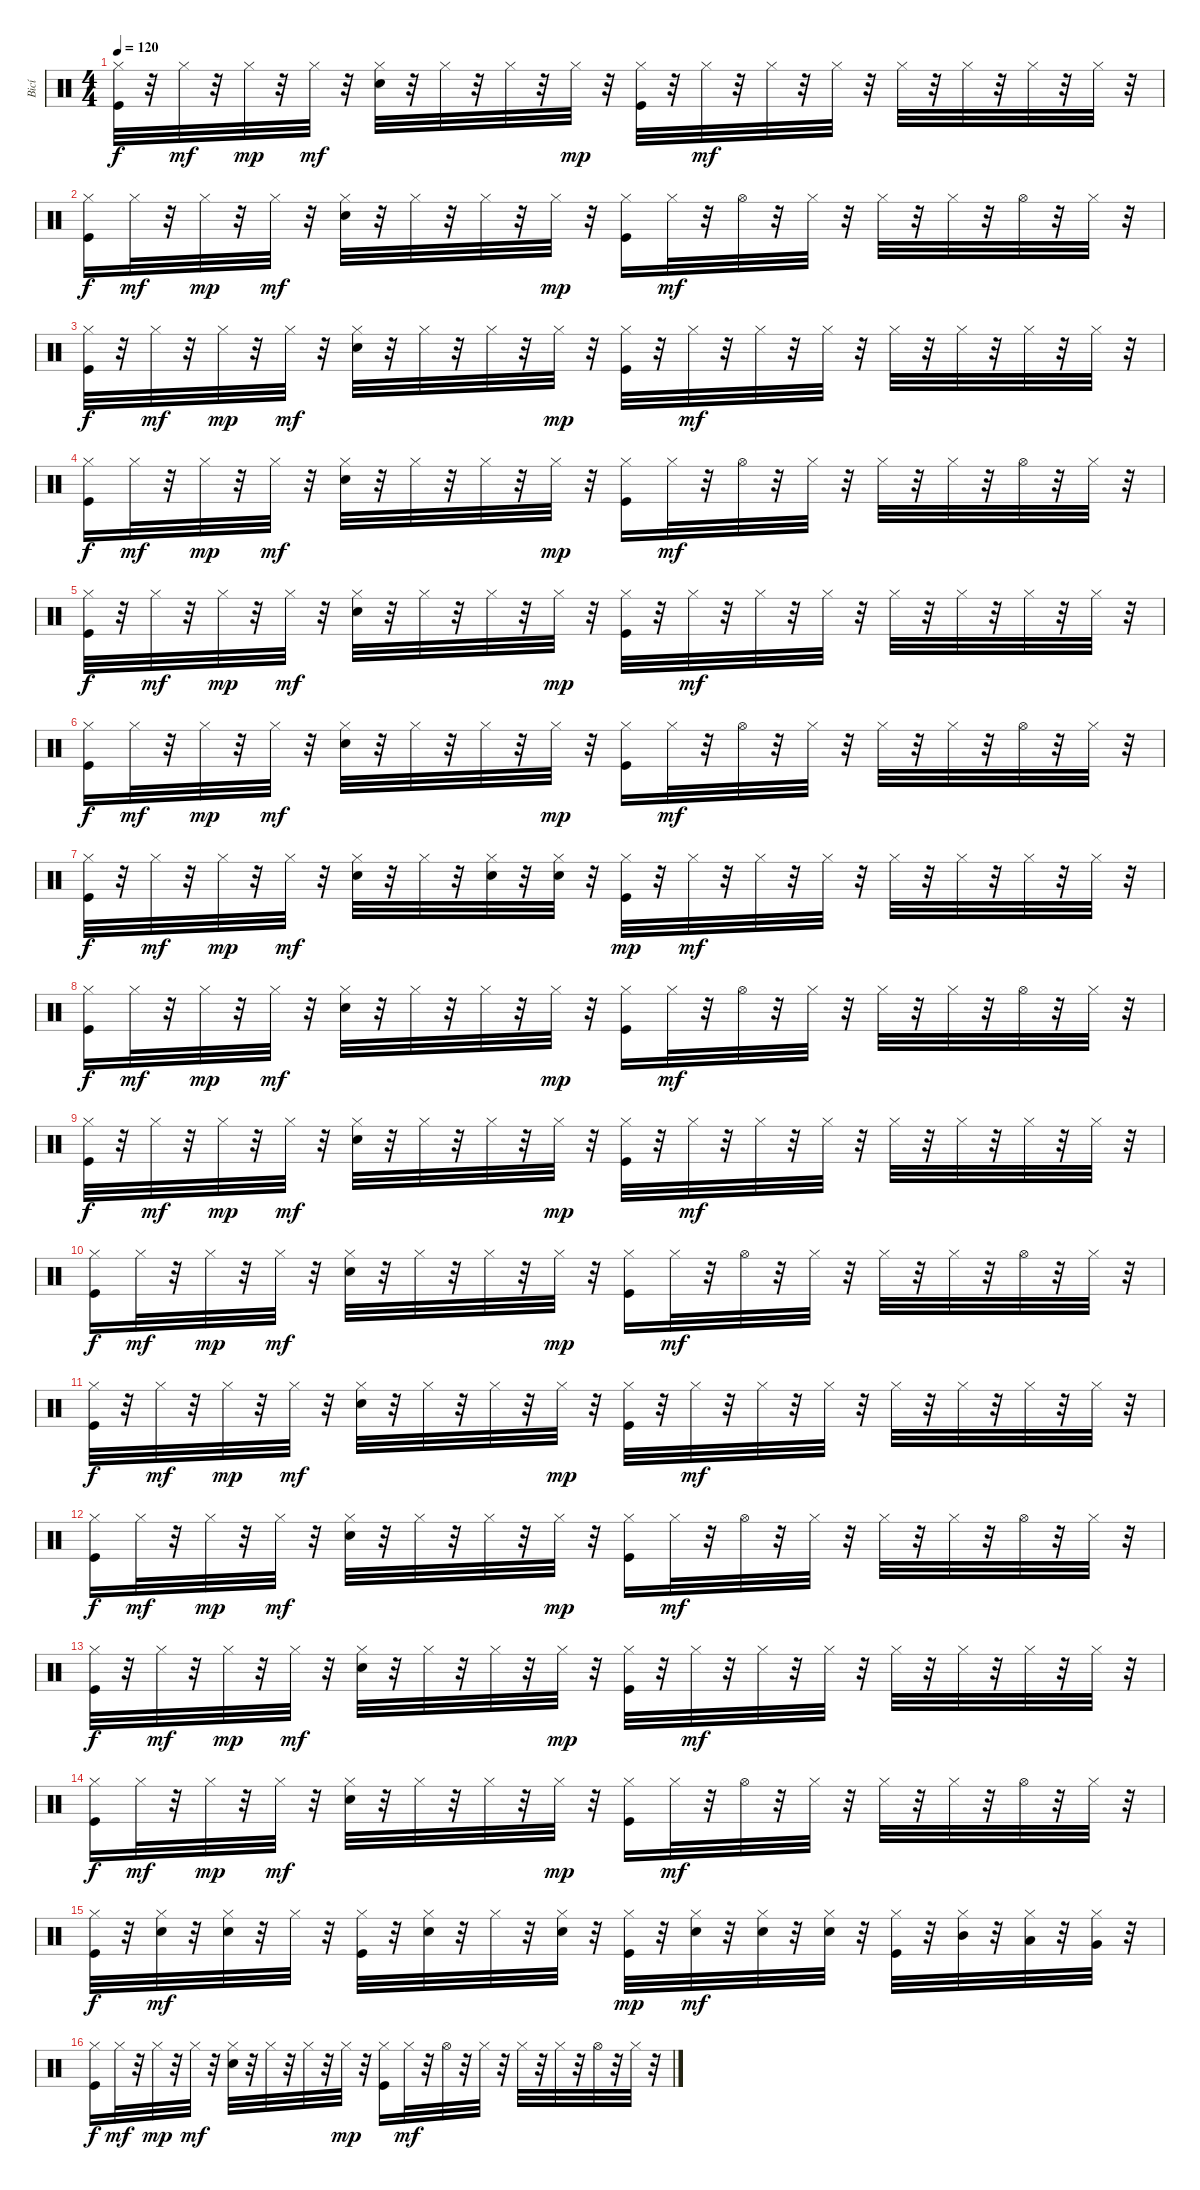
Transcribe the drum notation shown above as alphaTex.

\track ("Bicí" "Bicí") {instrument percussion}
\staff {score}
\articulation defaults
\ts (4 4)
\tempo 120
\clef neutral
\ks c
("Hi-Hat (closed)" "Kick (hit)").32{dy f} r.32 "Hi-Hat (closed)".32{dy mf} r.32 "Hi-Hat (closed)".32{dy mp} r.32 "Hi-Hat (closed)".32{dy mf} r.32 ("Hi-Hat (closed)" "Snare (hit) 2").32 r.32 "Hi-Hat (closed)".32 r.32 "Hi-Hat (closed)".32 r.32 "Hi-Hat (closed)".32{dy mp} r.32 ("Hi-Hat (closed)" "Kick (hit)").32 r.32 "Hi-Hat (closed)".32{dy mf} r.32 "Hi-Hat (closed)".32 r.32 "Hi-Hat (closed)".32 r.32 "Hi-Hat (closed)".32 r.32 "Hi-Hat (closed)".32 r.32 "Hi-Hat (closed)".32 r.32 "Hi-Hat (closed)".32 r.32 |
("Hi-Hat (closed)" "Kick (hit)").16{dy f} "Hi-Hat (closed)".32{dy mf} r.32 "Hi-Hat (closed)".32{dy mp} r.32 "Hi-Hat (closed)".32{dy mf} r.32 ("Hi-Hat (closed)" "Snare (hit) 2").32 r.32 "Hi-Hat (closed)".32 r.32 "Hi-Hat (closed)".32 r.32 "Hi-Hat (closed)".32{dy mp} r.32 ("Hi-Hat (closed)" "Kick (hit)").16 "Hi-Hat (closed)".32{dy mf} r.32 "Hi-Hat (open)".32 r.32 "Hi-Hat (closed)".32 r.32 "Hi-Hat (closed)".32 r.32 "Hi-Hat (closed)".32 r.32 "Hi-Hat (open)".32 r.32 "Hi-Hat (closed)".32 r.32 |
("Hi-Hat (closed)" "Kick (hit)").32{dy f} r.32 "Hi-Hat (closed)".32{dy mf} r.32 "Hi-Hat (closed)".32{dy mp} r.32 "Hi-Hat (closed)".32{dy mf} r.32 ("Hi-Hat (closed)" "Snare (hit) 2").32 r.32 "Hi-Hat (closed)".32 r.32 "Hi-Hat (closed)".32 r.32 "Hi-Hat (closed)".32{dy mp} r.32 ("Hi-Hat (closed)" "Kick (hit)").32 r.32 "Hi-Hat (closed)".32{dy mf} r.32 "Hi-Hat (closed)".32 r.32 "Hi-Hat (closed)".32 r.32 "Hi-Hat (closed)".32 r.32 "Hi-Hat (closed)".32 r.32 "Hi-Hat (closed)".32 r.32 "Hi-Hat (closed)".32 r.32 |
("Hi-Hat (closed)" "Kick (hit)").16{dy f} "Hi-Hat (closed)".32{dy mf} r.32 "Hi-Hat (closed)".32{dy mp} r.32 "Hi-Hat (closed)".32{dy mf} r.32 ("Hi-Hat (closed)" "Snare (hit) 2").32 r.32 "Hi-Hat (closed)".32 r.32 "Hi-Hat (closed)".32 r.32 "Hi-Hat (closed)".32{dy mp} r.32 ("Hi-Hat (closed)" "Kick (hit)").16 "Hi-Hat (closed)".32{dy mf} r.32 "Hi-Hat (open)".32 r.32 "Hi-Hat (closed)".32 r.32 "Hi-Hat (closed)".32 r.32 "Hi-Hat (closed)".32 r.32 "Hi-Hat (open)".32 r.32 "Hi-Hat (closed)".32 r.32 |
("Hi-Hat (closed)" "Kick (hit)").32{dy f} r.32 "Hi-Hat (closed)".32{dy mf} r.32 "Hi-Hat (closed)".32{dy mp} r.32 "Hi-Hat (closed)".32{dy mf} r.32 ("Hi-Hat (closed)" "Snare (hit) 2").32 r.32 "Hi-Hat (closed)".32 r.32 "Hi-Hat (closed)".32 r.32 "Hi-Hat (closed)".32{dy mp} r.32 ("Hi-Hat (closed)" "Kick (hit)").32 r.32 "Hi-Hat (closed)".32{dy mf} r.32 "Hi-Hat (closed)".32 r.32 "Hi-Hat (closed)".32 r.32 "Hi-Hat (closed)".32 r.32 "Hi-Hat (closed)".32 r.32 "Hi-Hat (closed)".32 r.32 "Hi-Hat (closed)".32 r.32 |
("Hi-Hat (closed)" "Kick (hit)").16{dy f} "Hi-Hat (closed)".32{dy mf} r.32 "Hi-Hat (closed)".32{dy mp} r.32 "Hi-Hat (closed)".32{dy mf} r.32 ("Hi-Hat (closed)" "Snare (hit) 2").32 r.32 "Hi-Hat (closed)".32 r.32 "Hi-Hat (closed)".32 r.32 "Hi-Hat (closed)".32{dy mp} r.32 ("Hi-Hat (closed)" "Kick (hit)").16 "Hi-Hat (closed)".32{dy mf} r.32 "Hi-Hat (open)".32 r.32 "Hi-Hat (closed)".32 r.32 "Hi-Hat (closed)".32 r.32 "Hi-Hat (closed)".32 r.32 "Hi-Hat (open)".32 r.32 "Hi-Hat (closed)".32 r.32 |
("Hi-Hat (closed)" "Kick (hit)").32{dy f} r.32 "Hi-Hat (closed)".32{dy mf} r.32 "Hi-Hat (closed)".32{dy mp} r.32 "Hi-Hat (closed)".32{dy mf} r.32 ("Hi-Hat (closed)" "Snare (hit) 2").32 r.32 "Hi-Hat (closed)".32 r.32 ("Hi-Hat (closed)" "Snare (hit) 2").32 r.32 ("Hi-Hat (closed)" "Snare (hit) 2").32 r.32 ("Hi-Hat (closed)" "Kick (hit)").32{dy mp} r.32 "Hi-Hat (closed)".32{dy mf} r.32 "Hi-Hat (closed)".32 r.32 "Hi-Hat (closed)".32 r.32 "Hi-Hat (closed)".32 r.32 "Hi-Hat (closed)".32 r.32 "Hi-Hat (closed)".32 r.32 "Hi-Hat (closed)".32 r.32 |
("Hi-Hat (closed)" "Kick (hit)").16{dy f} "Hi-Hat (closed)".32{dy mf} r.32 "Hi-Hat (closed)".32{dy mp} r.32 "Hi-Hat (closed)".32{dy mf} r.32 ("Hi-Hat (closed)" "Snare (hit) 2").32 r.32 "Hi-Hat (closed)".32 r.32 "Hi-Hat (closed)".32 r.32 "Hi-Hat (closed)".32{dy mp} r.32 ("Hi-Hat (closed)" "Kick (hit)").16 "Hi-Hat (closed)".32{dy mf} r.32 "Hi-Hat (open)".32 r.32 "Hi-Hat (closed)".32 r.32 "Hi-Hat (closed)".32 r.32 "Hi-Hat (closed)".32 r.32 "Hi-Hat (open)".32 r.32 "Hi-Hat (closed)".32 r.32 |
("Hi-Hat (closed)" "Kick (hit)").32{dy f} r.32 "Hi-Hat (closed)".32{dy mf} r.32 "Hi-Hat (closed)".32{dy mp} r.32 "Hi-Hat (closed)".32{dy mf} r.32 ("Hi-Hat (closed)" "Snare (hit) 2").32 r.32 "Hi-Hat (closed)".32 r.32 "Hi-Hat (closed)".32 r.32 "Hi-Hat (closed)".32{dy mp} r.32 ("Hi-Hat (closed)" "Kick (hit)").32 r.32 "Hi-Hat (closed)".32{dy mf} r.32 "Hi-Hat (closed)".32 r.32 "Hi-Hat (closed)".32 r.32 "Hi-Hat (closed)".32 r.32 "Hi-Hat (closed)".32 r.32 "Hi-Hat (closed)".32 r.32 "Hi-Hat (closed)".32 r.32 |
("Hi-Hat (closed)" "Kick (hit)").16{dy f} "Hi-Hat (closed)".32{dy mf} r.32 "Hi-Hat (closed)".32{dy mp} r.32 "Hi-Hat (closed)".32{dy mf} r.32 ("Hi-Hat (closed)" "Snare (hit) 2").32 r.32 "Hi-Hat (closed)".32 r.32 "Hi-Hat (closed)".32 r.32 "Hi-Hat (closed)".32{dy mp} r.32 ("Hi-Hat (closed)" "Kick (hit)").16 "Hi-Hat (closed)".32{dy mf} r.32 "Hi-Hat (open)".32 r.32 "Hi-Hat (closed)".32 r.32 "Hi-Hat (closed)".32 r.32 "Hi-Hat (closed)".32 r.32 "Hi-Hat (open)".32 r.32 "Hi-Hat (closed)".32 r.32 |
("Hi-Hat (closed)" "Kick (hit)").32{dy f} r.32 "Hi-Hat (closed)".32{dy mf} r.32 "Hi-Hat (closed)".32{dy mp} r.32 "Hi-Hat (closed)".32{dy mf} r.32 ("Hi-Hat (closed)" "Snare (hit) 2").32 r.32 "Hi-Hat (closed)".32 r.32 "Hi-Hat (closed)".32 r.32 "Hi-Hat (closed)".32{dy mp} r.32 ("Hi-Hat (closed)" "Kick (hit)").32 r.32 "Hi-Hat (closed)".32{dy mf} r.32 "Hi-Hat (closed)".32 r.32 "Hi-Hat (closed)".32 r.32 "Hi-Hat (closed)".32 r.32 "Hi-Hat (closed)".32 r.32 "Hi-Hat (closed)".32 r.32 "Hi-Hat (closed)".32 r.32 |
("Hi-Hat (closed)" "Kick (hit)").16{dy f} "Hi-Hat (closed)".32{dy mf} r.32 "Hi-Hat (closed)".32{dy mp} r.32 "Hi-Hat (closed)".32{dy mf} r.32 ("Hi-Hat (closed)" "Snare (hit) 2").32 r.32 "Hi-Hat (closed)".32 r.32 "Hi-Hat (closed)".32 r.32 "Hi-Hat (closed)".32{dy mp} r.32 ("Hi-Hat (closed)" "Kick (hit)").16 "Hi-Hat (closed)".32{dy mf} r.32 "Hi-Hat (open)".32 r.32 "Hi-Hat (closed)".32 r.32 "Hi-Hat (closed)".32 r.32 "Hi-Hat (closed)".32 r.32 "Hi-Hat (open)".32 r.32 "Hi-Hat (closed)".32 r.32 |
("Hi-Hat (closed)" "Kick (hit)").32{dy f} r.32 "Hi-Hat (closed)".32{dy mf} r.32 "Hi-Hat (closed)".32{dy mp} r.32 "Hi-Hat (closed)".32{dy mf} r.32 ("Hi-Hat (closed)" "Snare (hit) 2").32 r.32 "Hi-Hat (closed)".32 r.32 "Hi-Hat (closed)".32 r.32 "Hi-Hat (closed)".32{dy mp} r.32 ("Hi-Hat (closed)" "Kick (hit)").32 r.32 "Hi-Hat (closed)".32{dy mf} r.32 "Hi-Hat (closed)".32 r.32 "Hi-Hat (closed)".32 r.32 "Hi-Hat (closed)".32 r.32 "Hi-Hat (closed)".32 r.32 "Hi-Hat (closed)".32 r.32 "Hi-Hat (closed)".32 r.32 |
("Hi-Hat (closed)" "Kick (hit)").16{dy f} "Hi-Hat (closed)".32{dy mf} r.32 "Hi-Hat (closed)".32{dy mp} r.32 "Hi-Hat (closed)".32{dy mf} r.32 ("Hi-Hat (closed)" "Snare (hit) 2").32 r.32 "Hi-Hat (closed)".32 r.32 "Hi-Hat (closed)".32 r.32 "Hi-Hat (closed)".32{dy mp} r.32 ("Hi-Hat (closed)" "Kick (hit)").16 "Hi-Hat (closed)".32{dy mf} r.32 "Hi-Hat (open)".32 r.32 "Hi-Hat (closed)".32 r.32 "Hi-Hat (closed)".32 r.32 "Hi-Hat (closed)".32 r.32 "Hi-Hat (open)".32 r.32 "Hi-Hat (closed)".32 r.32 |
("Hi-Hat (closed)" "Kick (hit)").32{dy f} r.32 ("Hi-Hat (closed)" "Snare (hit) 2").32{dy mf} r.32 ("Hi-Hat (closed)" "Snare (hit) 2").32 r.32 "Hi-Hat (closed)".32 r.32 ("Hi-Hat (closed)" "Kick (hit)").32 r.32 ("Hi-Hat (closed)" "Snare (hit) 2").32 r.32 "Hi-Hat (closed)".32 r.32 ("Hi-Hat (closed)" "Snare (hit) 2").32 r.32 ("Hi-Hat (closed)" "Kick (hit)").32{dy mp} r.32 ("Hi-Hat (closed)" "Snare (hit) 2").32{dy mf} r.32 ("Hi-Hat (closed)" "Snare (hit) 2").32 r.32 ("Hi-Hat (closed)" "Snare (hit) 2").32 r.32 ("Hi-Hat (closed)" "Kick (hit)").32 r.32 ("Hi-Hat (closed)" "Mid Tom (hit)").32 r.32 ("Hi-Hat (closed)" "Low Tom (hit)").32 r.32 ("Hi-Hat (closed)" "Very Low Tom (hit)").32 r.32 |
("Hi-Hat (closed)" "Kick (hit)").16{dy f} "Hi-Hat (closed)".32{dy mf} r.32 "Hi-Hat (closed)".32{dy mp} r.32 "Hi-Hat (closed)".32{dy mf} r.32 ("Hi-Hat (closed)" "Snare (hit) 2").32 r.32 "Hi-Hat (closed)".32 r.32 "Hi-Hat (closed)".32 r.32 "Hi-Hat (closed)".32{dy mp} r.32 ("Hi-Hat (closed)" "Kick (hit)").16 "Hi-Hat (closed)".32{dy mf} r.32 "Hi-Hat (open)".32 r.32 "Hi-Hat (closed)".32 r.32 "Hi-Hat (closed)".32 r.32 "Hi-Hat (closed)".32 r.32 "Hi-Hat (open)".32 r.32 "Hi-Hat (closed)".32 r.32
